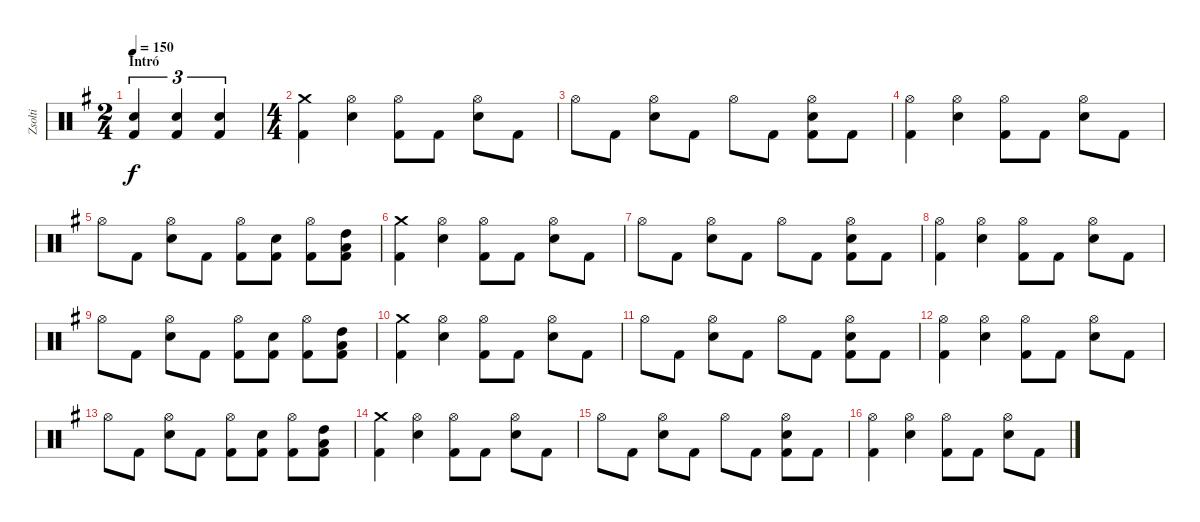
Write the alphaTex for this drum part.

\track ("Zsolti" "Zsolti") {instrument percussion}
\staff {score}
\articulation defaults
\ts (2 4)
\section ("" "Intró")
\tempo 150
\clef neutral
\ks eminor
("Snare (hit) 2" "Kick (hit) 2").4{tu (3 2) dy f} ("Snare (hit) 2" "Kick (hit) 2").4{tu (3 2)} ("Snare (hit) 2" "Kick (hit) 2").4{tu (3 2)} |
\ts (4 4)
("Crash medium (hit)" "Kick (hit) 2").4 ("Hi-Hat (open)" "Snare (hit) 2").4 ("Hi-Hat (open)" "Kick (hit) 2").8 "Kick (hit) 2".8 ("Hi-Hat (open)" "Snare (hit) 2").8 "Kick (hit) 2".8 |
"Hi-Hat (open)".8 "Kick (hit) 2".8 ("Hi-Hat (open)" "Snare (hit) 2").8 "Kick (hit) 2".8 "Hi-Hat (open)".8 "Kick (hit) 2".8 ("Hi-Hat (open)" "Snare (hit) 2" "Kick (hit) 2").8 "Kick (hit) 2".8 |
("Hi-Hat (open)" "Kick (hit) 2").4 ("Hi-Hat (open)" "Snare (hit) 2").4 ("Hi-Hat (open)" "Kick (hit) 2").8 "Kick (hit) 2".8 ("Hi-Hat (open)" "Snare (hit) 2").8 "Kick (hit) 2".8 |
"Hi-Hat (open)".8 "Kick (hit) 2".8 ("Hi-Hat (open)" "Snare (hit) 2").8 "Kick (hit) 2".8 ("Hi-Hat (open)" "Kick (hit) 2").8 ("Snare (hit) 2" "Kick (hit) 2").8 ("Hi-Hat (open)" "Kick (hit) 2").8 ("High Tom (hit)" "Low Tom (hit)" "Kick (hit) 2").8 |
("Crash medium (hit)" "Kick (hit) 2").4 ("Hi-Hat (open)" "Snare (hit) 2").4 ("Hi-Hat (open)" "Kick (hit) 2").8 "Kick (hit) 2".8 ("Hi-Hat (open)" "Snare (hit) 2").8 "Kick (hit) 2".8 |
"Hi-Hat (open)".8 "Kick (hit) 2".8 ("Hi-Hat (open)" "Snare (hit) 2").8 "Kick (hit) 2".8 "Hi-Hat (open)".8 "Kick (hit) 2".8 ("Hi-Hat (open)" "Snare (hit) 2" "Kick (hit) 2").8 "Kick (hit) 2".8 |
("Hi-Hat (open)" "Kick (hit) 2").4 ("Hi-Hat (open)" "Snare (hit) 2").4 ("Hi-Hat (open)" "Kick (hit) 2").8 "Kick (hit) 2".8 ("Hi-Hat (open)" "Snare (hit) 2").8 "Kick (hit) 2".8 |
"Hi-Hat (open)".8 "Kick (hit) 2".8 ("Hi-Hat (open)" "Snare (hit) 2").8 "Kick (hit) 2".8 ("Hi-Hat (open)" "Kick (hit) 2").8 ("Snare (hit) 2" "Kick (hit) 2").8 ("Hi-Hat (open)" "Kick (hit) 2").8 ("High Tom (hit)" "Low Tom (hit)" "Kick (hit) 2").8 |
("Crash medium (hit)" "Kick (hit) 2").4 ("Hi-Hat (open)" "Snare (hit) 2").4 ("Hi-Hat (open)" "Kick (hit) 2").8 "Kick (hit) 2".8 ("Hi-Hat (open)" "Snare (hit) 2").8 "Kick (hit) 2".8 |
"Hi-Hat (open)".8 "Kick (hit) 2".8 ("Hi-Hat (open)" "Snare (hit) 2").8 "Kick (hit) 2".8 "Hi-Hat (open)".8 "Kick (hit) 2".8 ("Hi-Hat (open)" "Snare (hit) 2" "Kick (hit) 2").8 "Kick (hit) 2".8 |
("Hi-Hat (open)" "Kick (hit) 2").4 ("Hi-Hat (open)" "Snare (hit) 2").4 ("Hi-Hat (open)" "Kick (hit) 2").8 "Kick (hit) 2".8 ("Hi-Hat (open)" "Snare (hit) 2").8 "Kick (hit) 2".8 |
"Hi-Hat (open)".8 "Kick (hit) 2".8 ("Hi-Hat (open)" "Snare (hit) 2").8 "Kick (hit) 2".8 ("Hi-Hat (open)" "Kick (hit) 2").8 ("Snare (hit) 2" "Kick (hit) 2").8 ("Hi-Hat (open)" "Kick (hit) 2").8 ("High Tom (hit)" "Low Tom (hit)" "Kick (hit) 2").8 |
("Crash medium (hit)" "Kick (hit) 2").4 ("Hi-Hat (open)" "Snare (hit) 2").4 ("Hi-Hat (open)" "Kick (hit) 2").8 "Kick (hit) 2".8 ("Hi-Hat (open)" "Snare (hit) 2").8 "Kick (hit) 2".8 |
"Hi-Hat (open)".8 "Kick (hit) 2".8 ("Hi-Hat (open)" "Snare (hit) 2").8 "Kick (hit) 2".8 "Hi-Hat (open)".8 "Kick (hit) 2".8 ("Hi-Hat (open)" "Snare (hit) 2" "Kick (hit) 2").8 "Kick (hit) 2".8 |
("Hi-Hat (open)" "Kick (hit) 2").4 ("Hi-Hat (open)" "Snare (hit) 2").4 ("Hi-Hat (open)" "Kick (hit) 2").8 "Kick (hit) 2".8 ("Hi-Hat (open)" "Snare (hit) 2").8 "Kick (hit) 2".8
